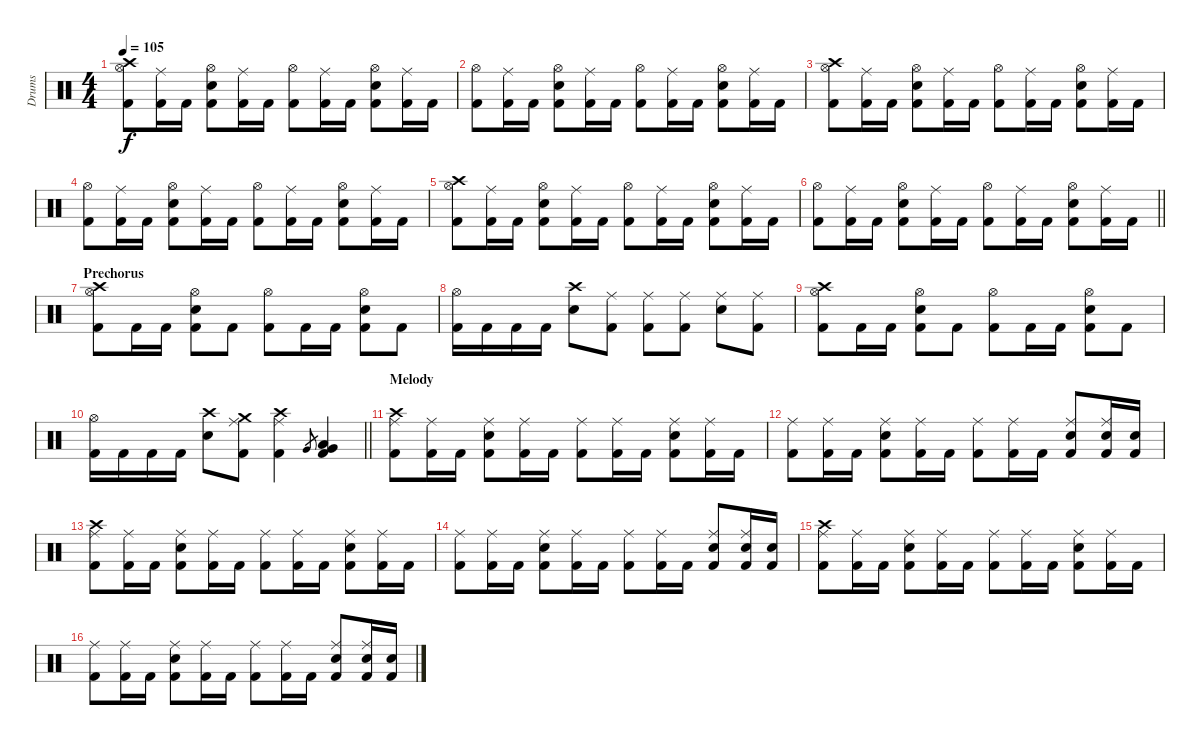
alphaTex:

\track ("Drums" "Drums") {instrument percussion}
\staff {score}
\articulation defaults
\ts (4 4)
\tempo 105
\clef neutral
\ks c
("Crash high (hit)" "Hi-Hat (open)" "Kick (hit) 2").8{dy f} ("Ride (middle)" "Kick (hit) 2").16 "Kick (hit) 2".16 ("Hi-Hat (open)" "Snare (hit) 2" "Kick (hit) 2").8 ("Ride (middle)" "Kick (hit) 2").16 "Kick (hit) 2".16 ("Hi-Hat (open)" "Kick (hit) 2").8 ("Ride (middle)" "Kick (hit) 2").16 "Kick (hit) 2".16 ("Hi-Hat (open)" "Snare (hit) 2" "Kick (hit) 2").8 ("Ride (middle)" "Kick (hit) 2").16 "Kick (hit) 2".16 |
("Hi-Hat (open)" "Kick (hit) 2").8 ("Ride (middle)" "Kick (hit) 2").16 "Kick (hit) 2".16 ("Hi-Hat (open)" "Snare (hit) 2" "Kick (hit) 2").8 ("Ride (middle)" "Kick (hit) 2").16 "Kick (hit) 2".16 ("Hi-Hat (open)" "Kick (hit) 2").8 ("Ride (middle)" "Kick (hit) 2").16 "Kick (hit) 2".16 ("Hi-Hat (open)" "Snare (hit) 2" "Kick (hit) 2").8 ("Ride (middle)" "Kick (hit) 2").16 "Kick (hit) 2".16 |
("Crash high (hit)" "Hi-Hat (open)" "Kick (hit) 2").8 ("Ride (middle)" "Kick (hit) 2").16 "Kick (hit) 2".16 ("Hi-Hat (open)" "Snare (hit) 2" "Kick (hit) 2").8 ("Ride (middle)" "Kick (hit) 2").16 "Kick (hit) 2".16 ("Hi-Hat (open)" "Kick (hit) 2").8 ("Ride (middle)" "Kick (hit) 2").16 "Kick (hit) 2".16 ("Hi-Hat (open)" "Snare (hit) 2" "Kick (hit) 2").8 ("Ride (middle)" "Kick (hit) 2").16 "Kick (hit) 2".16 |
("Hi-Hat (open)" "Kick (hit) 2").8 ("Ride (middle)" "Kick (hit) 2").16 "Kick (hit) 2".16 ("Hi-Hat (open)" "Snare (hit) 2" "Kick (hit) 2").8 ("Ride (middle)" "Kick (hit) 2").16 "Kick (hit) 2".16 ("Hi-Hat (open)" "Kick (hit) 2").8 ("Ride (middle)" "Kick (hit) 2").16 "Kick (hit) 2".16 ("Hi-Hat (open)" "Snare (hit) 2" "Kick (hit) 2").8 ("Ride (middle)" "Kick (hit) 2").16 "Kick (hit) 2".16 |
("Crash high (hit)" "Hi-Hat (open)" "Kick (hit) 2").8 ("Ride (middle)" "Kick (hit) 2").16 "Kick (hit) 2".16 ("Hi-Hat (open)" "Snare (hit) 2" "Kick (hit) 2").8 ("Ride (middle)" "Kick (hit) 2").16 "Kick (hit) 2".16 ("Hi-Hat (open)" "Kick (hit) 2").8 ("Ride (middle)" "Kick (hit) 2").16 "Kick (hit) 2".16 ("Hi-Hat (open)" "Snare (hit) 2" "Kick (hit) 2").8 ("Ride (middle)" "Kick (hit) 2").16 "Kick (hit) 2".16 |
\barLineRight lightlight
("Hi-Hat (open)" "Kick (hit) 2").8 ("Ride (middle)" "Kick (hit) 2").16 "Kick (hit) 2".16 ("Hi-Hat (open)" "Snare (hit) 2" "Kick (hit) 2").8 ("Ride (middle)" "Kick (hit) 2").16 "Kick (hit) 2".16 ("Hi-Hat (open)" "Kick (hit) 2").8 ("Ride (middle)" "Kick (hit) 2").16 "Kick (hit) 2".16 ("Hi-Hat (open)" "Snare (hit) 2" "Kick (hit) 2").8 ("Ride (middle)" "Kick (hit) 2").16 "Kick (hit) 2".16 |
\section ("" "Prechorus")
("Crash high (hit)" "Hi-Hat (open)" "Kick (hit) 2").8 "Kick (hit) 2".16 "Kick (hit) 2".16 ("Hi-Hat (open)" "Snare (hit) 2" "Kick (hit) 2").8 "Kick (hit) 2".8 ("Hi-Hat (open)" "Kick (hit) 2").8 "Kick (hit) 2".16 "Kick (hit) 2".16 ("Hi-Hat (open)" "Snare (hit) 2" "Kick (hit) 2").8 "Kick (hit) 2".8 |
("Hi-Hat (open)" "Kick (hit) 2").16 "Kick (hit) 2".16 "Kick (hit) 2".16 "Kick (hit) 2".16 ("Crash high (hit)" "Snare (hit) 2").8 ("Ride (middle)" "Kick (hit) 2").8 ("Ride (middle)" "Kick (hit) 2").8 ("Ride (middle)" "Kick (hit) 2").8 ("Ride (middle)" "Snare (hit) 2").8 ("Ride (middle)" "Kick (hit) 2").8 |
("Crash high (hit)" "Hi-Hat (open)" "Kick (hit) 2").8 "Kick (hit) 2".16 "Kick (hit) 2".16 ("Hi-Hat (open)" "Snare (hit) 2" "Kick (hit) 2").8 "Kick (hit) 2".8 ("Hi-Hat (open)" "Kick (hit) 2").8 "Kick (hit) 2".16 "Kick (hit) 2".16 ("Hi-Hat (open)" "Snare (hit) 2" "Kick (hit) 2").8 "Kick (hit) 2".8 |
\barLineRight lightlight
("Hi-Hat (open)" "Kick (hit) 2").16 "Kick (hit) 2".16 "Kick (hit) 2".16 "Kick (hit) 2".16 ("Crash high (hit)" "Snare (hit) 2").8 ("Crash medium (hit)" "Ride (middle)" "Kick (hit) 2").8 ("Crash high (hit)" "Ride (middle)" "Kick (hit) 2").4 "Very Low Tom (hit)".8{gr} ("Low Floor Tom (hit)" "Very Low Tom (hit)" "Kick (hit) 2").4 |
\section ("" "Melody")
("Crash high (hit)" "Ride (middle)" "Kick (hit) 2").8 ("Ride (middle)" "Kick (hit) 2").16 "Kick (hit) 2".16 ("Ride (middle)" "Snare (hit) 2" "Kick (hit) 2").8 ("Ride (middle)" "Kick (hit) 2").16 "Kick (hit) 2".16 ("Ride (middle)" "Kick (hit) 2").8 ("Ride (middle)" "Kick (hit) 2").16 "Kick (hit) 2".16 ("Ride (middle)" "Snare (hit) 2" "Kick (hit) 2").8 ("Ride (middle)" "Kick (hit) 2").16 "Kick (hit) 2".16 |
("Ride (middle)" "Kick (hit) 2").8 ("Ride (middle)" "Kick (hit) 2").16 "Kick (hit) 2".16 ("Ride (middle)" "Snare (hit) 2" "Kick (hit) 2").8 ("Ride (middle)" "Kick (hit) 2").16 "Kick (hit) 2".16 ("Ride (middle)" "Kick (hit) 2").8 ("Ride (middle)" "Kick (hit) 2").16 "Kick (hit) 2".16 ("Ride (middle)" "Snare (hit) 2" "Kick (hit) 2").8 ("Ride (middle)" "Snare (hit) 2" "Kick (hit) 2").16 ("Snare (hit) 2" "Kick (hit) 2").16 |
("Crash high (hit)" "Ride (middle)" "Kick (hit) 2").8 ("Ride (middle)" "Kick (hit) 2").16 "Kick (hit) 2".16 ("Ride (middle)" "Snare (hit) 2" "Kick (hit) 2").8 ("Ride (middle)" "Kick (hit) 2").16 "Kick (hit) 2".16 ("Ride (middle)" "Kick (hit) 2").8 ("Ride (middle)" "Kick (hit) 2").16 "Kick (hit) 2".16 ("Ride (middle)" "Snare (hit) 2" "Kick (hit) 2").8 ("Ride (middle)" "Kick (hit) 2").16 "Kick (hit) 2".16 |
("Ride (middle)" "Kick (hit) 2").8 ("Ride (middle)" "Kick (hit) 2").16 "Kick (hit) 2".16 ("Ride (middle)" "Snare (hit) 2" "Kick (hit) 2").8 ("Ride (middle)" "Kick (hit) 2").16 "Kick (hit) 2".16 ("Ride (middle)" "Kick (hit) 2").8 ("Ride (middle)" "Kick (hit) 2").16 "Kick (hit) 2".16 ("Ride (middle)" "Snare (hit) 2" "Kick (hit) 2").8 ("Ride (middle)" "Snare (hit) 2" "Kick (hit) 2").16 ("Snare (hit) 2" "Kick (hit) 2").16 |
("Crash high (hit)" "Ride (middle)" "Kick (hit) 2").8 ("Ride (middle)" "Kick (hit) 2").16 "Kick (hit) 2".16 ("Ride (middle)" "Snare (hit) 2" "Kick (hit) 2").8 ("Ride (middle)" "Kick (hit) 2").16 "Kick (hit) 2".16 ("Ride (middle)" "Kick (hit) 2").8 ("Ride (middle)" "Kick (hit) 2").16 "Kick (hit) 2".16 ("Ride (middle)" "Snare (hit) 2" "Kick (hit) 2").8 ("Ride (middle)" "Kick (hit) 2").16 "Kick (hit) 2".16 |
("Ride (middle)" "Kick (hit) 2").8 ("Ride (middle)" "Kick (hit) 2").16 "Kick (hit) 2".16 ("Ride (middle)" "Snare (hit) 2" "Kick (hit) 2").8 ("Ride (middle)" "Kick (hit) 2").16 "Kick (hit) 2".16 ("Ride (middle)" "Kick (hit) 2").8 ("Ride (middle)" "Kick (hit) 2").16 "Kick (hit) 2".16 ("Ride (middle)" "Snare (hit) 2" "Kick (hit) 2").8 ("Ride (middle)" "Snare (hit) 2" "Kick (hit) 2").16 ("Snare (hit) 2" "Kick (hit) 2").16
